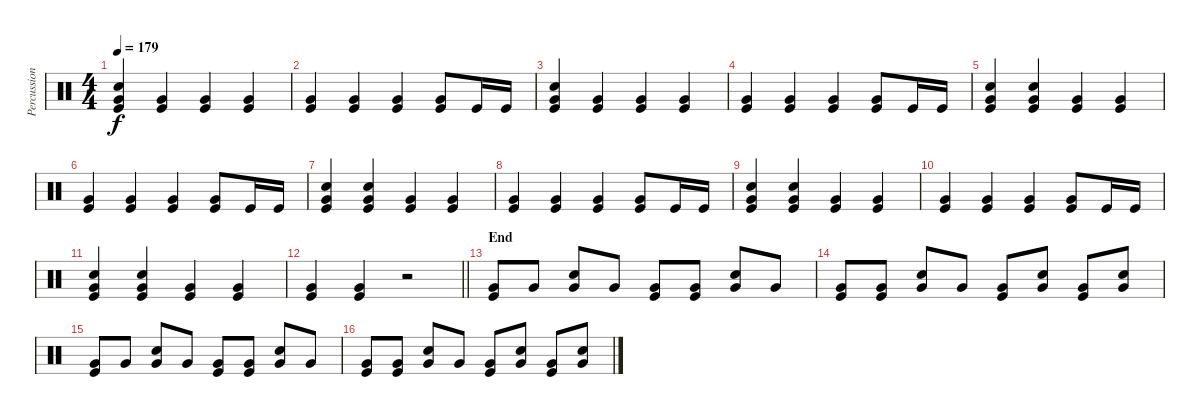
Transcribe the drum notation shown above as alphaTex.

\track ("Percussion" "Percussion") {instrument percussion}
\staff {score}
\articulation defaults
\ts (4 4)
\tempo 179
\clef neutral
\ks c
("Kick (hit)" "Snare (hit) 2" "Very Low Tom (hit)").4{dy f} ("Kick (hit)" "Very Low Tom (hit)").4 ("Kick (hit)" "Very Low Tom (hit)").4 ("Kick (hit)" "Very Low Tom (hit)").4 |
("Kick (hit)" "Very Low Tom (hit)").4 ("Kick (hit)" "Very Low Tom (hit)").4 ("Kick (hit)" "Very Low Tom (hit)").4 ("Kick (hit)" "Very Low Tom (hit)").8 "Kick (hit)".16 "Kick (hit)".16 |
("Kick (hit)" "Snare (hit) 2" "Very Low Tom (hit)").4 ("Kick (hit)" "Very Low Tom (hit)").4 ("Kick (hit)" "Very Low Tom (hit)").4 ("Kick (hit)" "Very Low Tom (hit)").4 |
("Kick (hit)" "Very Low Tom (hit)").4 ("Kick (hit)" "Very Low Tom (hit)").4 ("Kick (hit)" "Very Low Tom (hit)").4 ("Kick (hit)" "Very Low Tom (hit)").8 "Kick (hit)".16 "Kick (hit)".16 |
("Kick (hit)" "Snare (hit) 2" "Very Low Tom (hit)").4 ("Kick (hit)" "Snare (hit) 2" "Very Low Tom (hit)").4 ("Kick (hit)" "Very Low Tom (hit)").4 ("Kick (hit)" "Very Low Tom (hit)").4 |
("Kick (hit)" "Very Low Tom (hit)").4 ("Kick (hit)" "Very Low Tom (hit)").4 ("Kick (hit)" "Very Low Tom (hit)").4 ("Kick (hit)" "Very Low Tom (hit)").8 "Kick (hit)".16 "Kick (hit)".16 |
("Kick (hit)" "Snare (hit) 2" "Very Low Tom (hit)").4 ("Kick (hit)" "Snare (hit) 2" "Very Low Tom (hit)").4 ("Kick (hit)" "Very Low Tom (hit)").4 ("Kick (hit)" "Very Low Tom (hit)").4 |
("Kick (hit)" "Very Low Tom (hit)").4 ("Kick (hit)" "Very Low Tom (hit)").4 ("Kick (hit)" "Very Low Tom (hit)").4 ("Kick (hit)" "Very Low Tom (hit)").8 "Kick (hit)".16 "Kick (hit)".16 |
("Kick (hit)" "Snare (hit) 2" "Very Low Tom (hit)").4 ("Kick (hit)" "Snare (hit) 2" "Very Low Tom (hit)").4 ("Kick (hit)" "Very Low Tom (hit)").4 ("Kick (hit)" "Very Low Tom (hit)").4 |
("Kick (hit)" "Very Low Tom (hit)").4 ("Kick (hit)" "Very Low Tom (hit)").4 ("Kick (hit)" "Very Low Tom (hit)").4 ("Kick (hit)" "Very Low Tom (hit)").8 "Kick (hit)".16 "Kick (hit)".16 |
("Kick (hit)" "Snare (hit) 2" "Very Low Tom (hit)").4 ("Kick (hit)" "Snare (hit) 2" "Very Low Tom (hit)").4 ("Kick (hit)" "Very Low Tom (hit)").4 ("Kick (hit)" "Very Low Tom (hit)").4 |
\barLineRight lightlight
("Kick (hit)" "Very Low Tom (hit)").4 ("Kick (hit)" "Very Low Tom (hit)").4 r.2 |
\section ("" "End")
("Kick (hit)" "Very Low Tom (hit)").8 "Very Low Tom (hit)".8 ("Snare (hit) 2" "Very Low Tom (hit)").8 "Very Low Tom (hit)".8 ("Kick (hit)" "Very Low Tom (hit)").8 ("Kick (hit)" "Very Low Tom (hit)").8 ("Snare (hit) 2" "Very Low Tom (hit)").8 "Very Low Tom (hit)".8 |
("Kick (hit)" "Very Low Tom (hit)").8 ("Kick (hit)" "Very Low Tom (hit)").8 ("Snare (hit) 2" "Very Low Tom (hit)").8 "Very Low Tom (hit)".8 ("Kick (hit)" "Very Low Tom (hit)").8 ("Snare (hit) 2" "Very Low Tom (hit)").8 ("Kick (hit)" "Very Low Tom (hit)").8 ("Snare (hit) 2" "Very Low Tom (hit)").8 |
("Kick (hit)" "Very Low Tom (hit)").8 "Very Low Tom (hit)".8 ("Snare (hit) 2" "Very Low Tom (hit)").8 "Very Low Tom (hit)".8 ("Kick (hit)" "Very Low Tom (hit)").8 ("Kick (hit)" "Very Low Tom (hit)").8 ("Snare (hit) 2" "Very Low Tom (hit)").8 "Very Low Tom (hit)".8 |
("Kick (hit)" "Very Low Tom (hit)").8 ("Kick (hit)" "Very Low Tom (hit)").8 ("Snare (hit) 2" "Very Low Tom (hit)").8 "Very Low Tom (hit)".8 ("Kick (hit)" "Very Low Tom (hit)").8 ("Snare (hit) 2" "Very Low Tom (hit)").8 ("Kick (hit)" "Very Low Tom (hit)").8 ("Snare (hit) 2" "Very Low Tom (hit)").8
